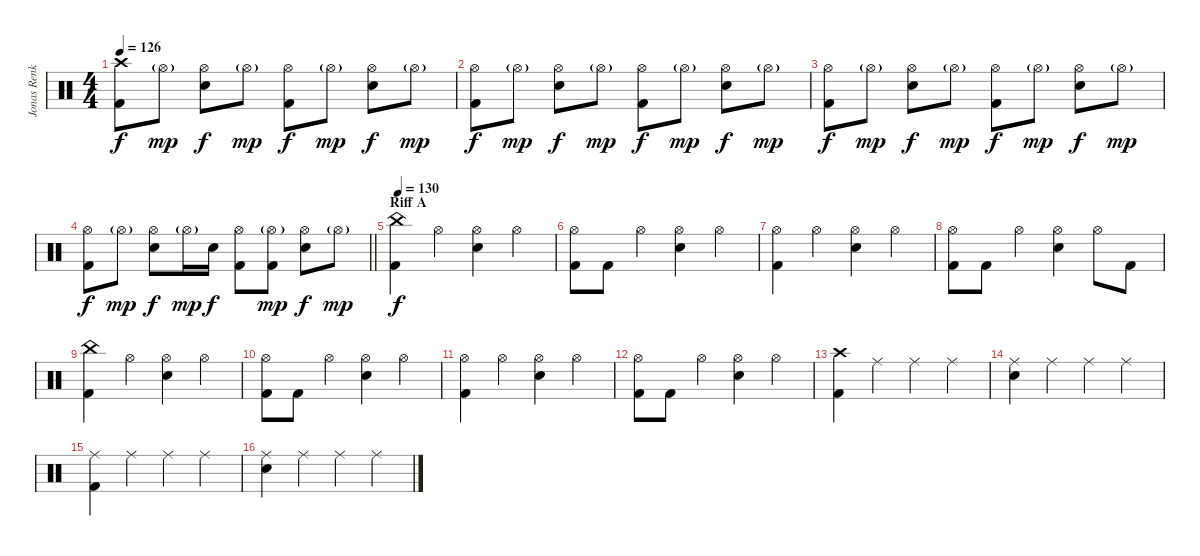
\track ("Jonas Renkse" "Jonas Renk") {instrument percussion}
\staff {score}
\articulation defaults
\ts (4 4)
\tempo 126
\clef neutral
\ks c
("Crash high (hit)" "Kick (hit) 2").8{dy f} "Hi-Hat (open)"{g}.8{dy mp} ("Hi-Hat (open)" "Electric Snare (hit)").8{dy f} "Hi-Hat (open)"{g}.8{dy mp} ("Hi-Hat (open)" "Kick (hit) 2").8{dy f} "Hi-Hat (open)"{g}.8{dy mp} ("Hi-Hat (open)" "Electric Snare (hit)").8{dy f} "Hi-Hat (open)"{g}.8{dy mp} |
("Hi-Hat (open)" "Kick (hit) 2").8{dy f} "Hi-Hat (open)"{g}.8{dy mp} ("Hi-Hat (open)" "Electric Snare (hit)").8{dy f} "Hi-Hat (open)"{g}.8{dy mp} ("Hi-Hat (open)" "Kick (hit) 2").8{dy f} "Hi-Hat (open)"{g}.8{dy mp} ("Hi-Hat (open)" "Electric Snare (hit)").8{dy f} "Hi-Hat (open)"{g}.8{dy mp} |
("Hi-Hat (open)" "Kick (hit) 2").8{dy f} "Hi-Hat (open)"{g}.8{dy mp} ("Hi-Hat (open)" "Electric Snare (hit)").8{dy f} "Hi-Hat (open)"{g}.8{dy mp} ("Hi-Hat (open)" "Kick (hit) 2").8{dy f} "Hi-Hat (open)"{g}.8{dy mp} ("Hi-Hat (open)" "Electric Snare (hit)").8{dy f} "Hi-Hat (open)"{g}.8{dy mp} |
\barLineRight lightlight
("Hi-Hat (open)" "Kick (hit) 2").8{dy f} "Hi-Hat (open)"{g}.8{dy mp} ("Hi-Hat (open)" "Electric Snare (hit)").8{dy f} "Hi-Hat (open)"{g}.16{dy mp} "Electric Snare (hit)".16{dy f} ("Hi-Hat (open)" "Kick (hit) 2").8 ("Hi-Hat (open)"{g} "Kick (hit) 2").8{dy mp} ("Hi-Hat (open)" "Electric Snare (hit)").8{dy f} "Hi-Hat (open)"{g}.8{dy mp} |
\section ("" "Riff A")
\tempo 130
("China (hit)" "Kick (hit) 2").4{dy f} "Hi-Hat (open)".4 ("Hi-Hat (open)" "Electric Snare (hit)").4 "Hi-Hat (open)".4 |
("Hi-Hat (open)" "Kick (hit) 2").8 "Kick (hit) 2".8 "Hi-Hat (open)".4 ("Hi-Hat (open)" "Electric Snare (hit)").4 "Hi-Hat (open)".4 |
("Hi-Hat (open)" "Kick (hit) 2").4 "Hi-Hat (open)".4 ("Hi-Hat (open)" "Electric Snare (hit)").4 "Hi-Hat (open)".4 |
("Hi-Hat (open)" "Kick (hit) 2").8 "Kick (hit) 2".8 "Hi-Hat (open)".4 ("Hi-Hat (open)" "Electric Snare (hit)").4 "Hi-Hat (open)".8 "Kick (hit) 2".8 |
("China (hit)" "Kick (hit) 2").4 "Hi-Hat (open)".4 ("Hi-Hat (open)" "Electric Snare (hit)").4 "Hi-Hat (open)".4 |
("Hi-Hat (open)" "Kick (hit) 2").8 "Kick (hit) 2".8 "Hi-Hat (open)".4 ("Hi-Hat (open)" "Electric Snare (hit)").4 "Hi-Hat (open)".4 |
("Hi-Hat (open)" "Kick (hit) 2").4 "Hi-Hat (open)".4 ("Hi-Hat (open)" "Electric Snare (hit)").4 "Hi-Hat (open)".4 |
("Hi-Hat (open)" "Kick (hit) 2").8 "Kick (hit) 2".8 "Hi-Hat (open)".4 ("Hi-Hat (open)" "Electric Snare (hit)").4 "Hi-Hat (open)".4 |
("Crash high (hit)" "Kick (hit) 2").4 "Ride (middle)".4 "Ride (middle)".4 "Ride (middle)".4 |
("Ride (middle)" "Electric Snare (hit)").4 "Ride (middle)".4 "Ride (middle)".4 "Ride (middle)".4 |
("Ride (middle)" "Kick (hit) 2").4 "Ride (middle)".4 "Ride (middle)".4 "Ride (middle)".4 |
("Ride (middle)" "Electric Snare (hit)").4 "Ride (middle)".4 "Ride (middle)".4 "Ride (middle)".4
